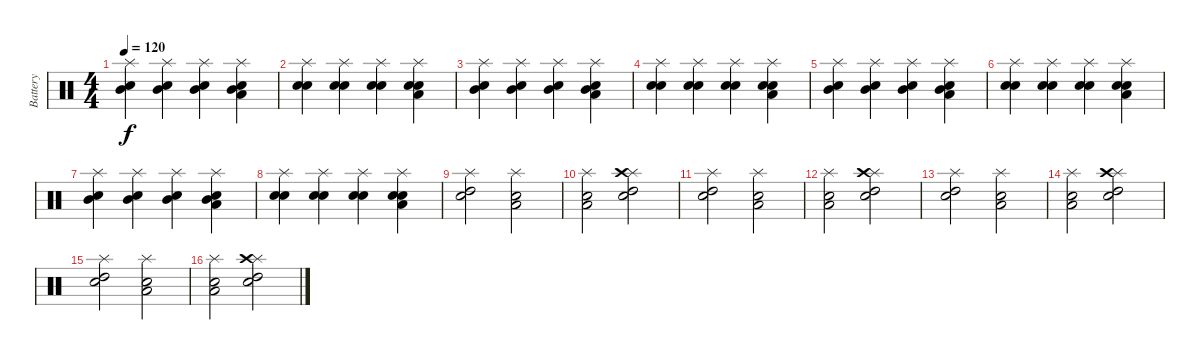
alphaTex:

\track ("Battery" "Battery") {instrument percussion}
\staff {score}
\articulation defaults
\ts (4 4)
\tempo 120
\clef neutral
\ks c
("Snare (hit) 2" "Mid Tom (hit)" "Splash (hit)").4{dy f} ("Snare (hit) 2" "Mid Tom (hit)" "Splash (hit)").4 ("Snare (hit) 2" "Mid Tom (hit)" "Splash (hit)").4 ("Snare (hit) 2" "Mid Tom (hit)" "Low Floor Tom (hit)" "Splash (hit)").4 |
("Snare (hit) 2" "Electric Snare (hit)" "Splash (hit)").4 ("Snare (hit) 2" "Electric Snare (hit)" "Splash (hit)").4 ("Snare (hit) 2" "Electric Snare (hit)" "Splash (hit)").4 ("Snare (hit) 2" "Electric Snare (hit)" "Low Floor Tom (hit)" "Splash (hit)").4 |
("Snare (hit) 2" "Mid Tom (hit)" "Splash (hit)").4 ("Snare (hit) 2" "Mid Tom (hit)" "Splash (hit)").4 ("Snare (hit) 2" "Mid Tom (hit)" "Splash (hit)").4 ("Snare (hit) 2" "Mid Tom (hit)" "Low Floor Tom (hit)" "Splash (hit)").4 |
("Snare (hit) 2" "Electric Snare (hit)" "Splash (hit)").4 ("Snare (hit) 2" "Electric Snare (hit)" "Splash (hit)").4 ("Snare (hit) 2" "Electric Snare (hit)" "Splash (hit)").4 ("Snare (hit) 2" "Electric Snare (hit)" "Low Floor Tom (hit)" "Splash (hit)").4 |
("Snare (hit) 2" "Mid Tom (hit)" "Splash (hit)").4 ("Snare (hit) 2" "Mid Tom (hit)" "Splash (hit)").4 ("Snare (hit) 2" "Mid Tom (hit)" "Splash (hit)").4 ("Snare (hit) 2" "Mid Tom (hit)" "Low Floor Tom (hit)" "Splash (hit)").4 |
("Snare (hit) 2" "Electric Snare (hit)" "Splash (hit)").4 ("Snare (hit) 2" "Electric Snare (hit)" "Splash (hit)").4 ("Snare (hit) 2" "Electric Snare (hit)" "Splash (hit)").4 ("Snare (hit) 2" "Electric Snare (hit)" "Low Floor Tom (hit)" "Splash (hit)").4 |
("Snare (hit) 2" "Mid Tom (hit)" "Splash (hit)").4 ("Snare (hit) 2" "Mid Tom (hit)" "Splash (hit)").4 ("Snare (hit) 2" "Mid Tom (hit)" "Splash (hit)").4 ("Snare (hit) 2" "Mid Tom (hit)" "Low Floor Tom (hit)" "Splash (hit)").4 |
("Snare (hit) 2" "Electric Snare (hit)" "Splash (hit)").4 ("Snare (hit) 2" "Electric Snare (hit)" "Splash (hit)").4 ("Snare (hit) 2" "Electric Snare (hit)" "Splash (hit)").4 ("Snare (hit) 2" "Electric Snare (hit)" "Low Floor Tom (hit)" "Splash (hit)").4 |
("Snare (hit) 2" "Splash (hit)" "High Tom (hit)").2 ("Snare (hit) 2" "Splash (hit)" "Low Floor Tom (hit)").2 |
("Snare (hit) 2" "Splash (hit)" "Low Floor Tom (hit)").2 ("Snare (hit) 2" "Splash (hit)" "High Tom (hit)" "Crash high (hit)").2 |
("Snare (hit) 2" "Splash (hit)" "High Tom (hit)").2 ("Snare (hit) 2" "Splash (hit)" "Low Floor Tom (hit)").2 |
("Snare (hit) 2" "Splash (hit)" "Low Floor Tom (hit)").2 ("Snare (hit) 2" "Splash (hit)" "High Tom (hit)" "Crash high (hit)").2 |
("Snare (hit) 2" "Splash (hit)" "High Tom (hit)").2 ("Snare (hit) 2" "Splash (hit)" "Low Floor Tom (hit)").2 |
("Snare (hit) 2" "Splash (hit)" "Low Floor Tom (hit)").2 ("Snare (hit) 2" "Splash (hit)" "High Tom (hit)" "Crash high (hit)").2 |
("Snare (hit) 2" "Splash (hit)" "High Tom (hit)").2 ("Snare (hit) 2" "Splash (hit)" "Low Floor Tom (hit)").2 |
("Snare (hit) 2" "Splash (hit)" "Low Floor Tom (hit)").2 ("Snare (hit) 2" "Splash (hit)" "High Tom (hit)" "Crash high (hit)").2
